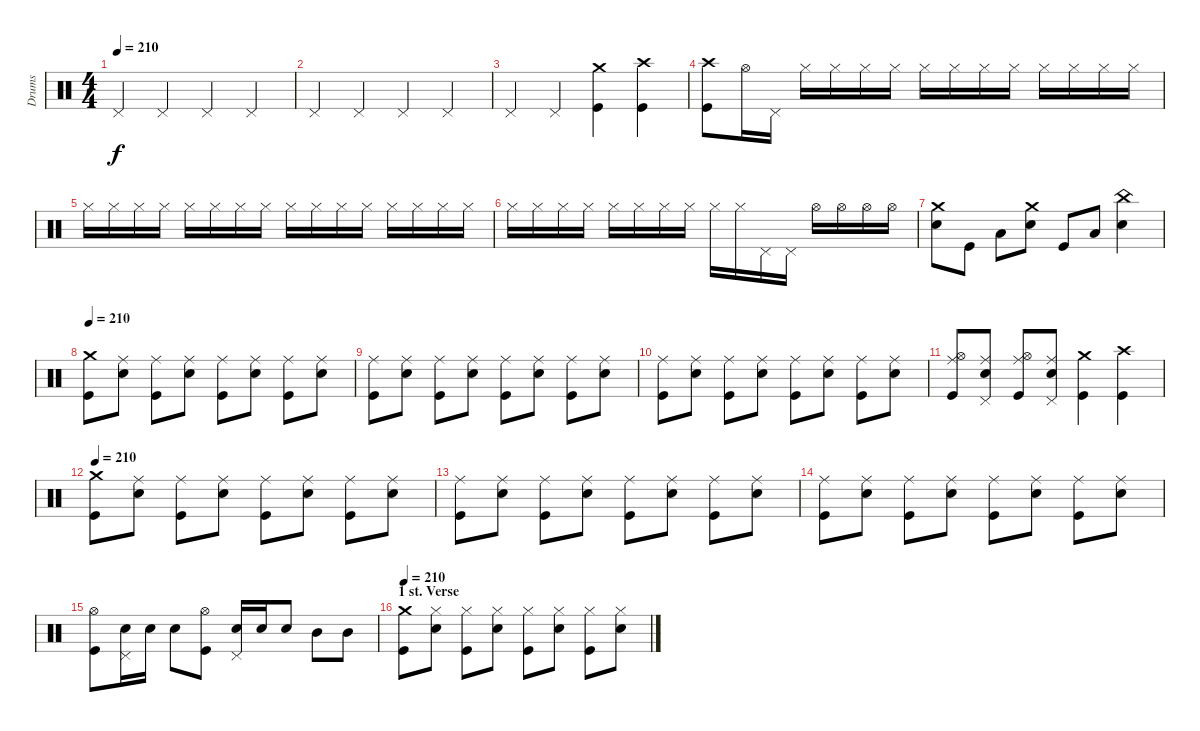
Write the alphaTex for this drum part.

\track ("Drums" "Drums") {instrument percussion}
\staff {score}
\articulation defaults
\ts (4 4)
\tempo 210
\clef neutral
\ks c "Pedal Hi-Hat (hit)".4{dy f} "Pedal Hi-Hat (hit)".4 "Pedal Hi-Hat (hit)".4 "Pedal Hi-Hat (hit)".4
|
"Pedal Hi-Hat (hit)".4 "Pedal Hi-Hat (hit)".4 "Pedal Hi-Hat (hit)".4 "Pedal Hi-Hat (hit)".4 |
"Pedal Hi-Hat (hit)".4 "Pedal Hi-Hat (hit)".4 ("Crash medium (hit)" "Kick (hit)").4 ("Crash high (hit)" "Kick (hit)").4 |
("Crash high (hit)" "Kick (hit)").8 "Hi-Hat (open)".16 "Pedal Hi-Hat (hit)".16 "Hi-Hat (closed)".16 "Hi-Hat (closed)".16 "Hi-Hat (closed)".16 "Hi-Hat (closed)".16 "Hi-Hat (closed)".16 "Hi-Hat (closed)".16 "Hi-Hat (closed)".16 "Hi-Hat (closed)".16 "Hi-Hat (closed)".16 "Hi-Hat (closed)".16 "Hi-Hat (closed)".16 "Hi-Hat (closed)".16 |
"Hi-Hat (closed)".16 "Hi-Hat (closed)".16 "Hi-Hat (closed)".16 "Hi-Hat (closed)".16 "Hi-Hat (closed)".16 "Hi-Hat (closed)".16 "Hi-Hat (closed)".16 "Hi-Hat (closed)".16 "Hi-Hat (closed)".16 "Hi-Hat (closed)".16 "Hi-Hat (closed)".16 "Hi-Hat (closed)".16 "Hi-Hat (closed)".16 "Hi-Hat (closed)".16 "Hi-Hat (closed)".16 "Hi-Hat (closed)".16 |
"Hi-Hat (closed)".16 "Hi-Hat (closed)".16 "Hi-Hat (closed)".16 "Hi-Hat (closed)".16 "Hi-Hat (closed)".16 "Hi-Hat (closed)".16 "Hi-Hat (closed)".16 "Hi-Hat (closed)".16 "Hi-Hat (closed)".16 "Hi-Hat (closed)".16 "Pedal Hi-Hat (hit)".16 "Pedal Hi-Hat (hit)".16 "Hi-Hat (open)".16 "Hi-Hat (open)".16 "Hi-Hat (open)".16 "Hi-Hat (open)".16 |
("Crash medium (hit)" "Electric Snare (hit)").8 "Kick (hit)".8 "Low Tom (hit)".8 ("Crash medium (hit)" "Electric Snare (hit)").8 "Kick (hit)".8 "Low Tom (hit)".8 ("China (hit)" "Electric Snare (hit)").4 |
\tempo 210
("Crash medium (hit)" "Kick (hit)").8 ("Ride (middle)" "Electric Snare (hit)").8 ("Ride (middle)" "Kick (hit)").8 ("Ride (middle)" "Electric Snare (hit)").8 ("Ride (middle)" "Kick (hit)").8 ("Ride (middle)" "Electric Snare (hit)").8 ("Ride (middle)" "Kick (hit)").8 ("Ride (middle)" "Electric Snare (hit)").8 |
("Ride (middle)" "Kick (hit)").8 ("Ride (middle)" "Electric Snare (hit)").8 ("Ride (middle)" "Kick (hit)").8 ("Ride (middle)" "Electric Snare (hit)").8 ("Ride (middle)" "Kick (hit)").8 ("Ride (middle)" "Electric Snare (hit)").8 ("Ride (middle)" "Kick (hit)").8 ("Ride (middle)" "Electric Snare (hit)").8 |
("Ride (middle)" "Kick (hit)").8 ("Ride (middle)" "Electric Snare (hit)").8 ("Ride (middle)" "Kick (hit)").8 ("Ride (middle)" "Electric Snare (hit)").8 ("Ride (middle)" "Kick (hit)").8 ("Ride (middle)" "Electric Snare (hit)").8 ("Ride (middle)" "Kick (hit)").8 ("Ride (middle)" "Electric Snare (hit)").8 |
("Ride (middle)" "Hi-Hat (open)" "Kick (hit)").8 ("Ride (middle)" "Pedal Hi-Hat (hit)" "Electric Snare (hit)").8 ("Ride (middle)" "Hi-Hat (open)" "Kick (hit)").8 ("Ride (middle)" "Pedal Hi-Hat (hit)" "Electric Snare (hit)").8 ("Crash medium (hit)" "Kick (hit)").4 ("Crash high (hit)" "Kick (hit)").4 |
\tempo 210
("Crash medium (hit)" "Kick (hit)").8 ("Ride (middle)" "Electric Snare (hit)").8 ("Ride (middle)" "Kick (hit)").8 ("Ride (middle)" "Electric Snare (hit)").8 ("Ride (middle)" "Kick (hit)").8 ("Ride (middle)" "Electric Snare (hit)").8 ("Ride (middle)" "Kick (hit)").8 ("Ride (middle)" "Electric Snare (hit)").8 |
("Ride (middle)" "Kick (hit)").8 ("Ride (middle)" "Electric Snare (hit)").8 ("Ride (middle)" "Kick (hit)").8 ("Ride (middle)" "Electric Snare (hit)").8 ("Ride (middle)" "Kick (hit)").8 ("Ride (middle)" "Electric Snare (hit)").8 ("Ride (middle)" "Kick (hit)").8 ("Ride (middle)" "Electric Snare (hit)").8 |
("Ride (middle)" "Kick (hit)").8 ("Ride (middle)" "Electric Snare (hit)").8 ("Ride (middle)" "Kick (hit)").8 ("Ride (middle)" "Electric Snare (hit)").8 ("Ride (middle)" "Kick (hit)").8 ("Ride (middle)" "Electric Snare (hit)").8 ("Ride (middle)" "Kick (hit)").8 ("Ride (middle)" "Electric Snare (hit)").8 |
("Hi-Hat (open)" "Kick (hit)").8 ("Pedal Hi-Hat (hit)" "Electric Snare (hit)").16 "Electric Snare (hit)".16 "Electric Snare (hit)".8 ("Hi-Hat (open)" "Kick (hit)").8 ("Pedal Hi-Hat (hit)" "Electric Snare (hit)").16 "Electric Snare (hit)".16 "Electric Snare (hit)".8 "Mid Tom (hit)".8 "Mid Tom (hit)".8 |
\section ("" "1 st. Verse")
\tempo 210
("Crash medium (hit)" "Kick (hit)").8 ("Hi-Hat (closed)" "Electric Snare (hit)").8 ("Hi-Hat (closed)" "Kick (hit)").8 ("Hi-Hat (closed)" "Electric Snare (hit)").8 ("Hi-Hat (closed)" "Kick (hit)").8 ("Hi-Hat (closed)" "Electric Snare (hit)").8 ("Hi-Hat (closed)" "Kick (hit)").8 ("Hi-Hat (closed)" "Electric Snare (hit)").8
